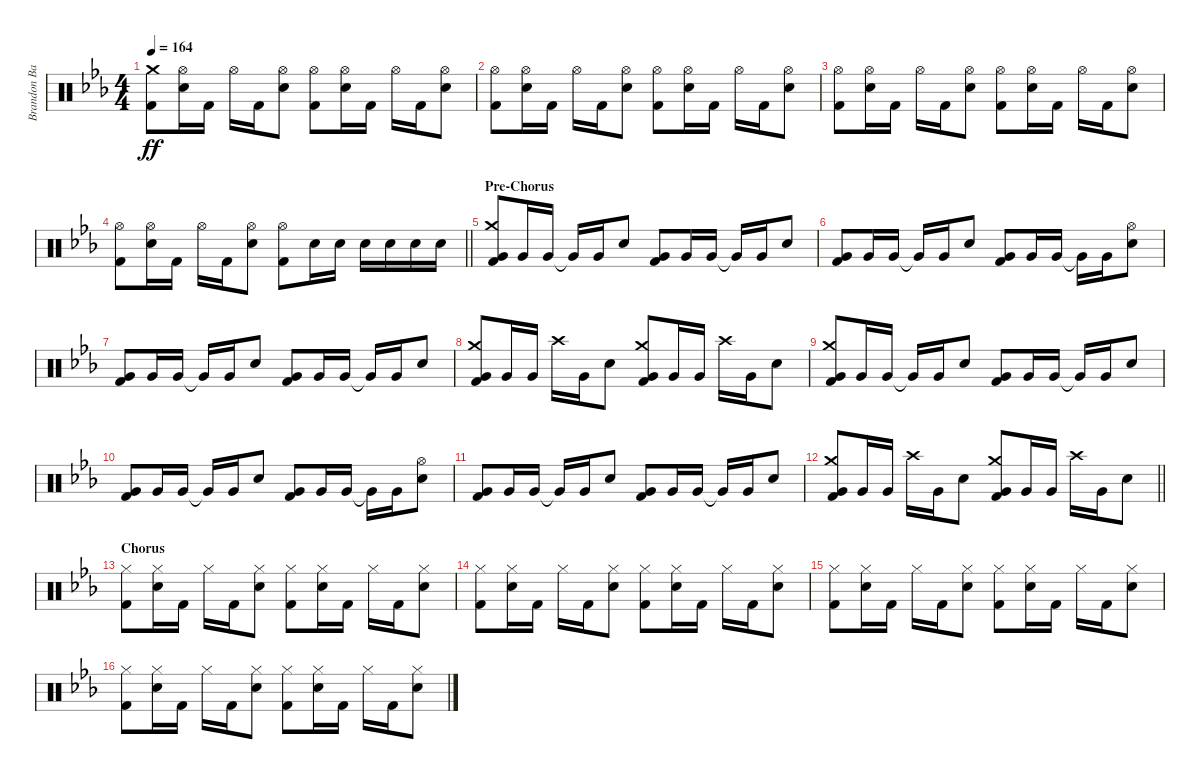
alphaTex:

\track ("Brandon Barnes - Drums" "Brandon Ba") {instrument percussion}
\staff {score}
\articulation defaults
\ts (4 4)
\tempo 164
\clef neutral
\ks eb
("Kick (hit) 2" "Crash medium (hit)").8{dy ff} ("Electric Snare (hit)" "Hi-Hat (open)").16 "Kick (hit) 2".16 "Hi-Hat (open)".16 "Kick (hit) 2".16 ("Electric Snare (hit)" "Hi-Hat (open)").8 ("Kick (hit) 2" "Hi-Hat (open)").8 ("Electric Snare (hit)" "Hi-Hat (open)").16 "Kick (hit) 2".16 "Hi-Hat (open)".16 "Kick (hit) 2".16 ("Electric Snare (hit)" "Hi-Hat (open)").8 |
("Kick (hit) 2" "Hi-Hat (open)").8 ("Electric Snare (hit)" "Hi-Hat (open)").16 "Kick (hit) 2".16 "Hi-Hat (open)".16 "Kick (hit) 2".16 ("Electric Snare (hit)" "Hi-Hat (open)").8 ("Kick (hit) 2" "Hi-Hat (open)").8 ("Electric Snare (hit)" "Hi-Hat (open)").16 "Kick (hit) 2".16 "Hi-Hat (open)".16 "Kick (hit) 2".16 ("Electric Snare (hit)" "Hi-Hat (open)").8 |
("Kick (hit) 2" "Hi-Hat (open)").8 ("Electric Snare (hit)" "Hi-Hat (open)").16 "Kick (hit) 2".16 "Hi-Hat (open)".16 "Kick (hit) 2".16 ("Electric Snare (hit)" "Hi-Hat (open)").8 ("Kick (hit) 2" "Hi-Hat (open)").8 ("Electric Snare (hit)" "Hi-Hat (open)").16 "Kick (hit) 2".16 "Hi-Hat (open)".16 "Kick (hit) 2".16 ("Electric Snare (hit)" "Hi-Hat (open)").8 |
\barLineRight lightlight
("Kick (hit) 2" "Hi-Hat (open)").8 ("Electric Snare (hit)" "Hi-Hat (open)").16 "Kick (hit) 2".16 "Hi-Hat (open)".16 "Kick (hit) 2".16 ("Electric Snare (hit)" "Hi-Hat (open)").8 ("Kick (hit) 2" "Hi-Hat (open)").8 "Electric Snare (hit)".16 "Snare (hit) 2".16 "Snare (hit) 2".16 "Snare (hit) 2".16 "Electric Snare (hit)".16 "Snare (hit) 2".16 |
\section ("" "Pre-Chorus")
("Crash medium (hit)" "Kick (hit) 2" "Very Low Tom (hit)").8 "Very Low Tom (hit)".16 "Very Low Tom (hit)".16 "Very Low Tom (hit)"{t}.16 "Very Low Tom (hit)".16 "Electric Snare (hit)".8 ("Kick (hit) 2" "Very Low Tom (hit)").8 "Very Low Tom (hit)".16 "Very Low Tom (hit)".16 "Very Low Tom (hit)"{t}.16 "Very Low Tom (hit)".16 "Electric Snare (hit)".8 |
("Kick (hit) 2" "Very Low Tom (hit)").8 "Very Low Tom (hit)".16 "Very Low Tom (hit)".16 "Very Low Tom (hit)"{t}.16 "Very Low Tom (hit)".16 "Electric Snare (hit)".8 ("Kick (hit) 2" "Very Low Tom (hit)").8 "Very Low Tom (hit)".16 "Very Low Tom (hit)".16 "Very Low Tom (hit)"{t}.16 "Very Low Tom (hit)".16 ("Electric Snare (hit)" "Hi-Hat (open)").8 |
("Kick (hit) 2" "Very Low Tom (hit)").8 "Very Low Tom (hit)".16 "Very Low Tom (hit)".16 "Very Low Tom (hit)"{t}.16 "Very Low Tom (hit)".16 "Electric Snare (hit)".8 ("Kick (hit) 2" "Very Low Tom (hit)").8 "Very Low Tom (hit)".16 "Very Low Tom (hit)".16 "Very Low Tom (hit)"{t}.16 "Very Low Tom (hit)".16 "Electric Snare (hit)".8 |
("Crash medium (hit)" "Kick (hit) 2" "Very Low Tom (hit)").8 "Very Low Tom (hit)".16 "Very Low Tom (hit)".16 "Crash high (hit)".16 "Very Low Tom (hit)".16 "Electric Snare (hit)".8 ("Crash medium (hit)" "Kick (hit) 2" "Very Low Tom (hit)").8 "Very Low Tom (hit)".16 "Very Low Tom (hit)".16 "Crash high (hit)".16 "Very Low Tom (hit)".16 "Electric Snare (hit)".8 |
("Crash medium (hit)" "Kick (hit) 2" "Very Low Tom (hit)").8 "Very Low Tom (hit)".16 "Very Low Tom (hit)".16 "Very Low Tom (hit)"{t}.16 "Very Low Tom (hit)".16 "Electric Snare (hit)".8 ("Kick (hit) 2" "Very Low Tom (hit)").8 "Very Low Tom (hit)".16 "Very Low Tom (hit)".16 "Very Low Tom (hit)"{t}.16 "Very Low Tom (hit)".16 "Electric Snare (hit)".8 |
("Kick (hit) 2" "Very Low Tom (hit)").8 "Very Low Tom (hit)".16 "Very Low Tom (hit)".16 "Very Low Tom (hit)"{t}.16 "Very Low Tom (hit)".16 "Electric Snare (hit)".8 ("Kick (hit) 2" "Very Low Tom (hit)").8 "Very Low Tom (hit)".16 "Very Low Tom (hit)".16 "Very Low Tom (hit)"{t}.16 "Very Low Tom (hit)".16 ("Electric Snare (hit)" "Hi-Hat (open)").8 |
("Kick (hit) 2" "Very Low Tom (hit)").8 "Very Low Tom (hit)".16 "Very Low Tom (hit)".16 "Very Low Tom (hit)"{t}.16 "Very Low Tom (hit)".16 "Electric Snare (hit)".8 ("Kick (hit) 2" "Very Low Tom (hit)").8 "Very Low Tom (hit)".16 "Very Low Tom (hit)".16 "Very Low Tom (hit)"{t}.16 "Very Low Tom (hit)".16 "Electric Snare (hit)".8 |
\barLineRight lightlight
("Crash medium (hit)" "Kick (hit) 2" "Very Low Tom (hit)").8 "Very Low Tom (hit)".16 "Very Low Tom (hit)".16 "Crash high (hit)".16 "Very Low Tom (hit)".16 "Electric Snare (hit)".8 ("Crash medium (hit)" "Kick (hit) 2" "Very Low Tom (hit)").8 "Very Low Tom (hit)".16 "Very Low Tom (hit)".16 "Crash high (hit)".16 "Very Low Tom (hit)".16 "Electric Snare (hit)".8 |
\section ("" "Chorus")
("Kick (hit) 2" "Hi-Hat (closed)").8 ("Electric Snare (hit)" "Hi-Hat (closed)").16 "Kick (hit) 2".16 "Hi-Hat (closed)".16 "Kick (hit) 2".16 ("Electric Snare (hit)" "Hi-Hat (closed)").8 ("Kick (hit) 2" "Hi-Hat (closed)").8 ("Electric Snare (hit)" "Hi-Hat (closed)").16 "Kick (hit) 2".16 "Hi-Hat (closed)".16 "Kick (hit) 2".16 ("Electric Snare (hit)" "Hi-Hat (closed)").8 |
("Kick (hit) 2" "Hi-Hat (closed)").8 ("Electric Snare (hit)" "Hi-Hat (closed)").16 "Kick (hit) 2".16 "Hi-Hat (closed)".16 "Kick (hit) 2".16 ("Electric Snare (hit)" "Hi-Hat (closed)").8 ("Kick (hit) 2" "Hi-Hat (closed)").8 ("Electric Snare (hit)" "Hi-Hat (closed)").16 "Kick (hit) 2".16 "Hi-Hat (closed)".16 "Kick (hit) 2".16 ("Electric Snare (hit)" "Hi-Hat (closed)").8 |
("Kick (hit) 2" "Hi-Hat (closed)").8 ("Electric Snare (hit)" "Hi-Hat (closed)").16 "Kick (hit) 2".16 "Hi-Hat (closed)".16 "Kick (hit) 2".16 ("Electric Snare (hit)" "Hi-Hat (closed)").8 ("Kick (hit) 2" "Hi-Hat (closed)").8 ("Electric Snare (hit)" "Hi-Hat (closed)").16 "Kick (hit) 2".16 "Hi-Hat (closed)".16 "Kick (hit) 2".16 ("Electric Snare (hit)" "Hi-Hat (closed)").8 |
("Kick (hit) 2" "Hi-Hat (closed)").8 ("Electric Snare (hit)" "Hi-Hat (closed)").16 "Kick (hit) 2".16 "Hi-Hat (closed)".16 "Kick (hit) 2".16 ("Electric Snare (hit)" "Hi-Hat (closed)").8 ("Kick (hit) 2" "Hi-Hat (closed)").8 ("Electric Snare (hit)" "Hi-Hat (closed)").16 "Kick (hit) 2".16 "Hi-Hat (closed)".16 "Kick (hit) 2".16 ("Electric Snare (hit)" "Hi-Hat (closed)").8
